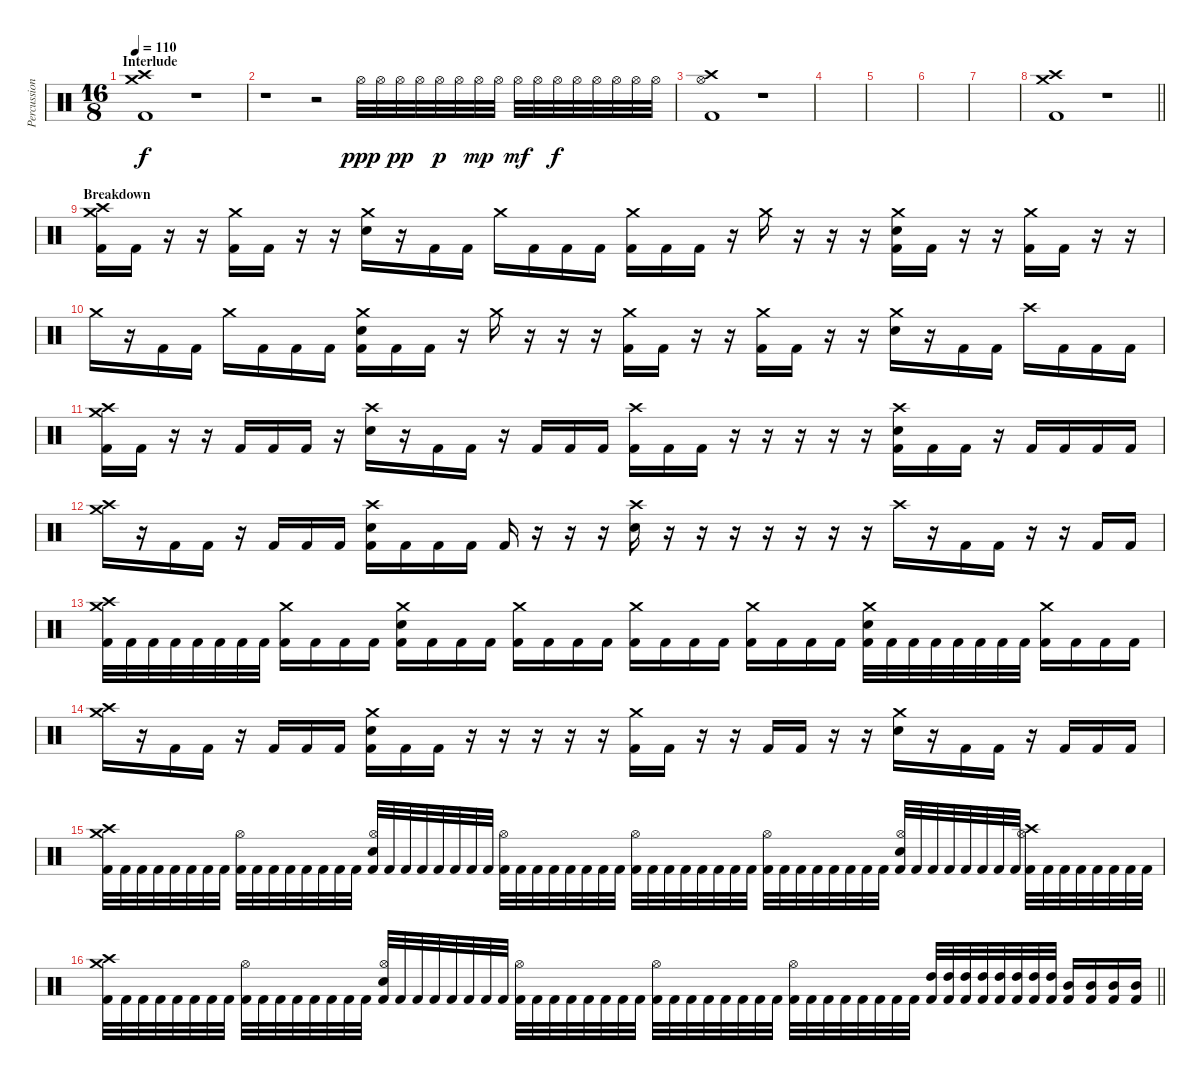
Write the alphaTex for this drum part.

\track ("Percussion" "Percussion") {instrument percussion}
\staff {score}
\articulation defaults
\ts (16 8)
\section ("" "Interlude")
\tempo 110
\clef neutral
\ks c
("Crash high (hit)" "Crash medium (hit)" "Kick (hit) 2").1{dy f} r.1 |
r.1 r.2 "Hi-Hat (open)".32{dy ppp} "Hi-Hat (open)".32 "Hi-Hat (open)".32{dy pp} "Hi-Hat (open)".32 "Hi-Hat (open)".32{dy p} "Hi-Hat (open)".32 "Hi-Hat (open)".32{dy mp} "Hi-Hat (open)".32 "Hi-Hat (open)".32{dy mf} "Hi-Hat (open)".32 "Hi-Hat (open)".32{dy f} "Hi-Hat (open)".32 "Hi-Hat (open)".32 "Hi-Hat (open)".32 "Hi-Hat (open)".32 "Hi-Hat (open)".32 |
("Crash high (hit)" "Hi-Hat (open)" "Kick (hit) 2").1 r.1 |
|
|
|
|
\barLineRight lightlight
("Crash high (hit)" "Crash medium (hit)" "Kick (hit) 2").1 r.1 |
\section ("" "Breakdown")
("Crash medium (hit)" "Crash high (hit)" "Kick (hit) 2").16 "Kick (hit) 2".16 r.16 r.16 ("Crash medium (hit)" "Kick (hit) 2").16 "Kick (hit) 2".16 r.16 r.16 ("Crash medium (hit)" "Snare (hit) 2").16 r.16 "Kick (hit) 2".16 "Kick (hit) 2".16 "Crash medium (hit)".16 "Kick (hit) 2".16 "Kick (hit) 2".16 "Kick (hit) 2".16 ("Crash medium (hit)" "Kick (hit) 2").16 "Kick (hit) 2".16 "Kick (hit) 2".16 r.16 "Crash medium (hit)".16 r.16 r.16 r.16 ("Crash medium (hit)" "Snare (hit) 2" "Kick (hit) 2").16 "Kick (hit) 2".16 r.16 r.16 ("Crash medium (hit)" "Kick (hit) 2").16 "Kick (hit) 2".16 r.16 r.16 |
"Crash medium (hit)".16 r.16 "Kick (hit) 2".16 "Kick (hit) 2".16 "Crash medium (hit)".16 "Kick (hit) 2".16 "Kick (hit) 2".16 "Kick (hit) 2".16 ("Crash medium (hit)" "Snare (hit) 2" "Kick (hit) 2").16 "Kick (hit) 2".16 "Kick (hit) 2".16 r.16 "Crash medium (hit)".16 r.16 r.16 r.16 ("Crash medium (hit)" "Kick (hit) 2").16 "Kick (hit) 2".16 r.16 r.16 ("Crash medium (hit)" "Kick (hit) 2").16 "Kick (hit) 2".16 r.16 r.16 ("Crash medium (hit)" "Snare (hit) 2").16 r.16 "Kick (hit) 2".16 "Kick (hit) 2".16 "Crash high (hit)".16 "Kick (hit) 2".16 "Kick (hit) 2".16 "Kick (hit) 2".16 |
("Crash medium (hit)" "Crash high (hit)" "Kick (hit) 2").16 "Kick (hit) 2".16 r.16 r.16 "Kick (hit) 2".16 "Kick (hit) 2".16 "Kick (hit) 2".16 r.16 ("Crash high (hit)" "Snare (hit) 2").16 r.16 "Kick (hit) 2".16 "Kick (hit) 2".16 r.16 "Kick (hit) 2".16 "Kick (hit) 2".16 "Kick (hit) 2".16 ("Crash high (hit)" "Kick (hit) 2").16 "Kick (hit) 2".16 "Kick (hit) 2".16 r.16 r.16 r.16 r.16 r.16 ("Crash high (hit)" "Snare (hit) 2" "Kick (hit) 2").16 "Kick (hit) 2".16 "Kick (hit) 2".16 r.16 "Kick (hit) 2".16 "Kick (hit) 2".16 "Kick (hit) 2".16 "Kick (hit) 2".16 |
("Crash medium (hit)" "Crash high (hit)").16 r.16 "Kick (hit) 2".16 "Kick (hit) 2".16 r.16 "Kick (hit) 2".16 "Kick (hit) 2".16 "Kick (hit) 2".16 ("Crash high (hit)" "Snare (hit) 2" "Kick (hit) 2").16 "Kick (hit) 2".16 "Kick (hit) 2".16 "Kick (hit) 2".16 "Kick (hit) 2".16 r.16 r.16 r.16 ("Crash high (hit)" "Snare (hit) 2").16 r.16 r.16 r.16 r.16 r.16 r.16 r.16 "Crash high (hit)".16 r.16 "Kick (hit) 2".16 "Kick (hit) 2".16 r.16 r.16 "Kick (hit) 2".16 "Kick (hit) 2".16 |
("Crash medium (hit)" "Crash high (hit)" "Kick (hit) 2").32 "Kick (hit) 2".32 "Kick (hit) 2".32 "Kick (hit) 2".32 "Kick (hit) 2".32 "Kick (hit) 2".32 "Kick (hit) 2".32 "Kick (hit) 2".32 ("Crash medium (hit)" "Kick (hit) 2").16 "Kick (hit) 2".16 "Kick (hit) 2".16 "Kick (hit) 2".16 ("Crash medium (hit)" "Snare (hit) 2" "Kick (hit) 2").16 "Kick (hit) 2".16 "Kick (hit) 2".16 "Kick (hit) 2".16 ("Crash medium (hit)" "Kick (hit) 2").16 "Kick (hit) 2".16 "Kick (hit) 2".16 "Kick (hit) 2".16 ("Crash medium (hit)" "Kick (hit) 2").16 "Kick (hit) 2".16 "Kick (hit) 2".16 "Kick (hit) 2".16 ("Crash medium (hit)" "Kick (hit) 2").16 "Kick (hit) 2".16 "Kick (hit) 2".16 "Kick (hit) 2".16 ("Crash medium (hit)" "Snare (hit) 2" "Kick (hit) 2").32 "Kick (hit) 2".32 "Kick (hit) 2".32 "Kick (hit) 2".32 "Kick (hit) 2".32 "Kick (hit) 2".32 "Kick (hit) 2".32 "Kick (hit) 2".32 ("Crash medium (hit)" "Kick (hit) 2").16 "Kick (hit) 2".16 "Kick (hit) 2".16 "Kick (hit) 2".16 |
("Crash medium (hit)" "Crash high (hit)").16 r.16 "Kick (hit) 2".16 "Kick (hit) 2".16 r.16 "Kick (hit) 2".16 "Kick (hit) 2".16 "Kick (hit) 2".16 ("Crash medium (hit)" "Snare (hit) 2" "Kick (hit) 2").16 "Kick (hit) 2".16 "Kick (hit) 2".16 r.16 r.16 r.16 r.16 r.16 ("Crash medium (hit)" "Kick (hit) 2").16 "Kick (hit) 2".16 r.16 r.16 "Kick (hit) 2".16 "Kick (hit) 2".16 r.16 r.16 ("Crash medium (hit)" "Snare (hit) 2").16 r.16 "Kick (hit) 2".16 "Kick (hit) 2".16 r.16 "Kick (hit) 2".16 "Kick (hit) 2".16 "Kick (hit) 2".16 |
("Crash medium (hit)" "Crash high (hit)" "Kick (hit) 2").32 "Kick (hit) 2".32 "Kick (hit) 2".32 "Kick (hit) 2".32 "Kick (hit) 2".32 "Kick (hit) 2".32 "Kick (hit) 2".32 "Kick (hit) 2".32 ("Hi-Hat (open)" "Kick (hit) 2").32 "Kick (hit) 2".32 "Kick (hit) 2".32 "Kick (hit) 2".32 "Kick (hit) 2".32 "Kick (hit) 2".32 "Kick (hit) 2".32 "Kick (hit) 2".32 ("Hi-Hat (open)" "Snare (hit) 2" "Kick (hit) 2").32 "Kick (hit) 2".32 "Kick (hit) 2".32 "Kick (hit) 2".32 "Kick (hit) 2".32 "Kick (hit) 2".32 "Kick (hit) 2".32 "Kick (hit) 2".32 ("Hi-Hat (open)" "Kick (hit) 2").32 "Kick (hit) 2".32 "Kick (hit) 2".32 "Kick (hit) 2".32 "Kick (hit) 2".32 "Kick (hit) 2".32 "Kick (hit) 2".32 "Kick (hit) 2".32 ("Hi-Hat (open)" "Kick (hit) 2").32 "Kick (hit) 2".32 "Kick (hit) 2".32 "Kick (hit) 2".32 "Kick (hit) 2".32 "Kick (hit) 2".32 "Kick (hit) 2".32 "Kick (hit) 2".32 ("Hi-Hat (open)" "Kick (hit) 2").32 "Kick (hit) 2".32 "Kick (hit) 2".32 "Kick (hit) 2".32 "Kick (hit) 2".32 "Kick (hit) 2".32 "Kick (hit) 2".32 "Kick (hit) 2".32 ("Hi-Hat (open)" "Snare (hit) 2" "Kick (hit) 2").32 "Kick (hit) 2".32 "Kick (hit) 2".32 "Kick (hit) 2".32 "Kick (hit) 2".32 "Kick (hit) 2".32 "Kick (hit) 2".32 "Kick (hit) 2".32 ("Crash high (hit)" "Hi-Hat (open)" "Kick (hit) 2").32 "Kick (hit) 2".32 "Kick (hit) 2".32 "Kick (hit) 2".32 "Kick (hit) 2".32 "Kick (hit) 2".32 "Kick (hit) 2".32 "Kick (hit) 2".32 |
\barLineRight lightlight
("Crash medium (hit)" "Crash high (hit)" "Kick (hit) 2").32 "Kick (hit) 2".32 "Kick (hit) 2".32 "Kick (hit) 2".32 "Kick (hit) 2".32 "Kick (hit) 2".32 "Kick (hit) 2".32 "Kick (hit) 2".32 ("Hi-Hat (open)" "Kick (hit) 2").32 "Kick (hit) 2".32 "Kick (hit) 2".32 "Kick (hit) 2".32 "Kick (hit) 2".32 "Kick (hit) 2".32 "Kick (hit) 2".32 "Kick (hit) 2".32 ("Hi-Hat (open)" "Snare (hit) 2" "Kick (hit) 2").32 "Kick (hit) 2".32 "Kick (hit) 2".32 "Kick (hit) 2".32 "Kick (hit) 2".32 "Kick (hit) 2".32 "Kick (hit) 2".32 "Kick (hit) 2".32 ("Hi-Hat (open)" "Kick (hit) 2").32 "Kick (hit) 2".32 "Kick (hit) 2".32 "Kick (hit) 2".32 "Kick (hit) 2".32 "Kick (hit) 2".32 "Kick (hit) 2".32 "Kick (hit) 2".32 ("Hi-Hat (open)" "Kick (hit) 2").32 "Kick (hit) 2".32 "Kick (hit) 2".32 "Kick (hit) 2".32 "Kick (hit) 2".32 "Kick (hit) 2".32 "Kick (hit) 2".32 "Kick (hit) 2".32 ("Hi-Hat (open)" "Kick (hit) 2").32 "Kick (hit) 2".32 "Kick (hit) 2".32 "Kick (hit) 2".32 "Kick (hit) 2".32 "Kick (hit) 2".32 "Kick (hit) 2".32 "Kick (hit) 2".32 ("High Tom (hit)" "Kick (hit) 2").32 ("High Tom (hit)" "Kick (hit) 2").32 ("High Tom (hit)" "Kick (hit) 2").32 ("High Tom (hit)" "Kick (hit) 2").32 ("High Tom (hit)" "Kick (hit) 2").32 ("High Tom (hit)" "Kick (hit) 2").32 ("High Tom (hit)" "Kick (hit) 2").32 ("High Tom (hit)" "Kick (hit) 2").32 ("Mid Tom (hit)" "Kick (hit) 2").16 ("Mid Tom (hit)" "Kick (hit) 2").16 ("Mid Tom (hit)" "Kick (hit) 2").16 ("Mid Tom (hit)" "Kick (hit) 2").16
